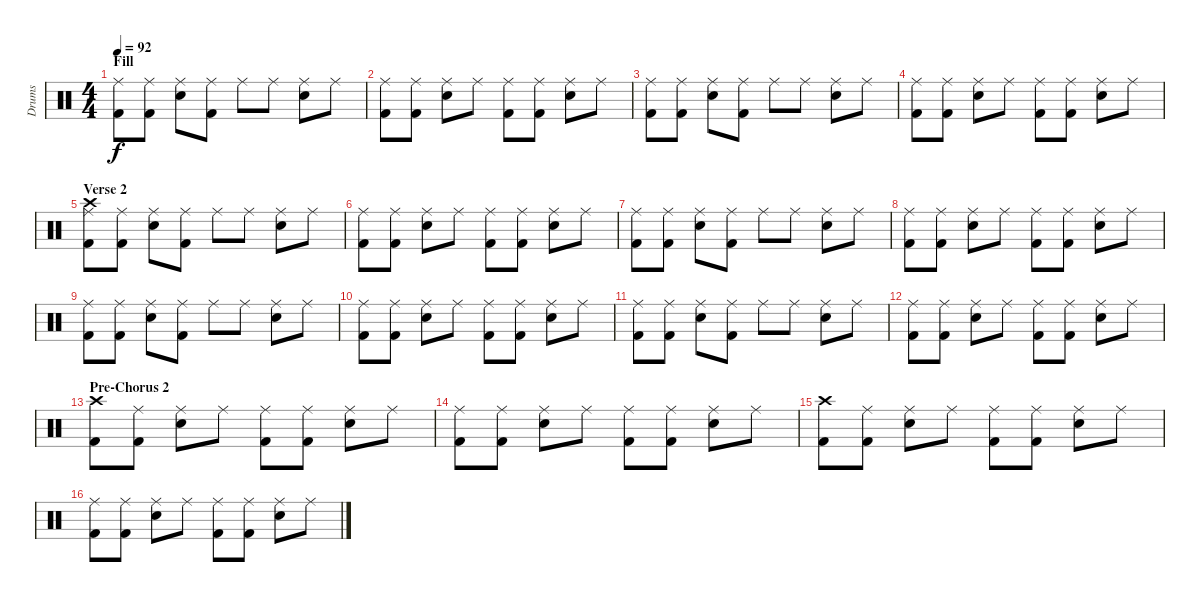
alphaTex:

\track ("Drums" "Drums") {instrument percussion}
\staff {score}
\articulation defaults
\ts (4 4)
\section ("" "Fill")
\tempo 92
\clef neutral
\ks c
("Ride (middle)" "Kick (hit) 2").8{dy f} ("Ride (middle)" "Kick (hit) 2").8 ("Ride (middle)" "Snare (hit) 2").8 ("Ride (middle)" "Kick (hit) 2").8 "Ride (middle)".8 "Ride (middle)".8 ("Ride (middle)" "Snare (hit) 2").8 "Ride (middle)".8 |
("Ride (middle)" "Kick (hit) 2").8 ("Ride (middle)" "Kick (hit) 2").8 ("Ride (middle)" "Snare (hit) 2").8 "Ride (middle)".8 ("Ride (middle)" "Kick (hit) 2").8 ("Ride (middle)" "Kick (hit) 2").8 ("Ride (middle)" "Snare (hit) 2").8 "Ride (middle)".8 |
("Ride (middle)" "Kick (hit) 2").8 ("Ride (middle)" "Kick (hit) 2").8 ("Ride (middle)" "Snare (hit) 2").8 ("Ride (middle)" "Kick (hit) 2").8 "Ride (middle)".8 "Ride (middle)".8 ("Ride (middle)" "Snare (hit) 2").8 "Ride (middle)".8 |
("Ride (middle)" "Kick (hit) 2").8 ("Ride (middle)" "Kick (hit) 2").8 ("Ride (middle)" "Snare (hit) 2").8 "Ride (middle)".8 ("Ride (middle)" "Kick (hit) 2").8 ("Ride (middle)" "Kick (hit) 2").8 ("Ride (middle)" "Snare (hit) 2").8 "Ride (middle)".8 |
\section ("" "Verse 2")
("Crash high (hit)" "Ride (middle)" "Kick (hit) 2").8 ("Ride (middle)" "Kick (hit) 2").8 ("Ride (middle)" "Snare (hit) 2").8 ("Ride (middle)" "Kick (hit) 2").8 "Ride (middle)".8 "Ride (middle)".8 ("Ride (middle)" "Snare (hit) 2").8 "Ride (middle)".8 |
("Ride (middle)" "Kick (hit) 2").8 ("Ride (middle)" "Kick (hit) 2").8 ("Ride (middle)" "Snare (hit) 2").8 "Ride (middle)".8 ("Ride (middle)" "Kick (hit) 2").8 ("Ride (middle)" "Kick (hit) 2").8 ("Ride (middle)" "Snare (hit) 2").8 "Ride (middle)".8 |
("Ride (middle)" "Kick (hit) 2").8 ("Ride (middle)" "Kick (hit) 2").8 ("Ride (middle)" "Snare (hit) 2").8 ("Ride (middle)" "Kick (hit) 2").8 "Ride (middle)".8 "Ride (middle)".8 ("Ride (middle)" "Snare (hit) 2").8 "Ride (middle)".8 |
("Ride (middle)" "Kick (hit) 2").8 ("Ride (middle)" "Kick (hit) 2").8 ("Ride (middle)" "Snare (hit) 2").8 "Ride (middle)".8 ("Ride (middle)" "Kick (hit) 2").8 ("Ride (middle)" "Kick (hit) 2").8 ("Ride (middle)" "Snare (hit) 2").8 "Ride (middle)".8 |
("Ride (middle)" "Kick (hit) 2").8 ("Ride (middle)" "Kick (hit) 2").8 ("Ride (middle)" "Snare (hit) 2").8 ("Ride (middle)" "Kick (hit) 2").8 "Ride (middle)".8 "Ride (middle)".8 ("Ride (middle)" "Snare (hit) 2").8 "Ride (middle)".8 |
("Ride (middle)" "Kick (hit) 2").8 ("Ride (middle)" "Kick (hit) 2").8 ("Ride (middle)" "Snare (hit) 2").8 "Ride (middle)".8 ("Ride (middle)" "Kick (hit) 2").8 ("Ride (middle)" "Kick (hit) 2").8 ("Ride (middle)" "Snare (hit) 2").8 "Ride (middle)".8 |
("Ride (middle)" "Kick (hit) 2").8 ("Ride (middle)" "Kick (hit) 2").8 ("Ride (middle)" "Snare (hit) 2").8 ("Ride (middle)" "Kick (hit) 2").8 "Ride (middle)".8 "Ride (middle)".8 ("Ride (middle)" "Snare (hit) 2").8 "Ride (middle)".8 |
("Ride (middle)" "Kick (hit) 2").8 ("Ride (middle)" "Kick (hit) 2").8 ("Ride (middle)" "Snare (hit) 2").8 "Ride (middle)".8 ("Ride (middle)" "Kick (hit) 2").8 ("Ride (middle)" "Kick (hit) 2").8 ("Ride (middle)" "Snare (hit) 2").8 "Ride (middle)".8 |
\section ("" "Pre-Chorus 2")
("Crash high (hit)" "Kick (hit) 2").8 ("Ride (middle)" "Kick (hit) 2").8 ("Ride (middle)" "Snare (hit) 2").8 "Ride (middle)".8 ("Ride (middle)" "Kick (hit) 2").8 ("Ride (middle)" "Kick (hit) 2").8 ("Ride (middle)" "Snare (hit) 2").8 "Ride (middle)".8 |
("Ride (middle)" "Kick (hit) 2").8 ("Ride (middle)" "Kick (hit) 2").8 ("Ride (middle)" "Snare (hit) 2").8 "Ride (middle)".8 ("Ride (middle)" "Kick (hit) 2").8 ("Ride (middle)" "Kick (hit) 2").8 ("Ride (middle)" "Snare (hit) 2").8 "Ride (middle)".8 |
("Crash high (hit)" "Kick (hit) 2").8 ("Ride (middle)" "Kick (hit) 2").8 ("Ride (middle)" "Snare (hit) 2").8 "Ride (middle)".8 ("Ride (middle)" "Kick (hit) 2").8 ("Ride (middle)" "Kick (hit) 2").8 ("Ride (middle)" "Snare (hit) 2").8 "Ride (middle)".8 |
("Ride (middle)" "Kick (hit) 2").8 ("Ride (middle)" "Kick (hit) 2").8 ("Ride (middle)" "Snare (hit) 2").8 "Ride (middle)".8 ("Ride (middle)" "Kick (hit) 2").8 ("Ride (middle)" "Kick (hit) 2").8 ("Ride (middle)" "Snare (hit) 2").8 "Ride (middle)".8
